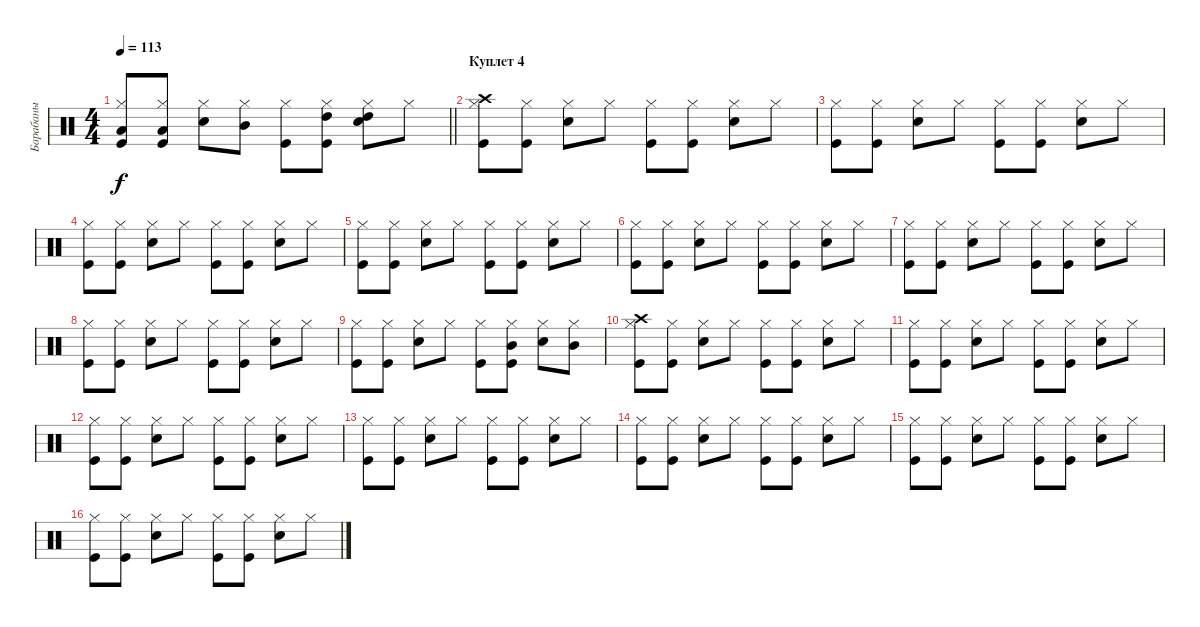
\track ("Барабаны" "Барабаны") {instrument percussion}
\staff {score}
\articulation defaults
\ts (4 4)
\tempo 113
\clef neutral
\barLineRight lightlight
\ks c
("Kick (hit)" "Hi-Hat (closed)" "Low Tom (hit)").8{dy f} ("Kick (hit)" "Hi-Hat (closed)" "Low Tom (hit)").8 ("Snare (hit) 2" "Hi-Hat (closed)").8 ("Hi-Hat (closed)" "Mid Tom (hit)").8 ("Kick (hit)" "Hi-Hat (closed)").8 ("Kick (hit)" "Hi-Hat (closed)" "High Tom (hit)").8 ("Snare (hit) 2" "Hi-Hat (closed)" "High Tom (hit)").8 "Hi-Hat (closed)".8 |
\section ("" "Куплет 4")
("Kick (hit)" "Hi-Hat (closed)" "Crash high (hit)").8 ("Kick (hit)" "Hi-Hat (closed)").8 ("Snare (hit) 2" "Hi-Hat (closed)").8 "Hi-Hat (closed)".8 ("Kick (hit)" "Hi-Hat (closed)").8 ("Kick (hit)" "Hi-Hat (closed)").8 ("Snare (hit) 2" "Hi-Hat (closed)").8 "Hi-Hat (closed)".8 |
("Kick (hit)" "Hi-Hat (closed)").8 ("Kick (hit)" "Hi-Hat (closed)").8 ("Snare (hit) 2" "Hi-Hat (closed)").8 "Hi-Hat (closed)".8 ("Kick (hit)" "Hi-Hat (closed)").8 ("Kick (hit)" "Hi-Hat (closed)").8 ("Snare (hit) 2" "Hi-Hat (closed)").8 "Hi-Hat (closed)".8 |
("Kick (hit)" "Hi-Hat (closed)").8 ("Kick (hit)" "Hi-Hat (closed)").8 ("Snare (hit) 2" "Hi-Hat (closed)").8 "Hi-Hat (closed)".8 ("Kick (hit)" "Hi-Hat (closed)").8 ("Kick (hit)" "Hi-Hat (closed)").8 ("Snare (hit) 2" "Hi-Hat (closed)").8 "Hi-Hat (closed)".8 |
("Kick (hit)" "Hi-Hat (closed)").8 ("Kick (hit)" "Hi-Hat (closed)").8 ("Snare (hit) 2" "Hi-Hat (closed)").8 "Hi-Hat (closed)".8 ("Kick (hit)" "Hi-Hat (closed)").8 ("Kick (hit)" "Hi-Hat (closed)").8 ("Snare (hit) 2" "Hi-Hat (closed)").8 "Hi-Hat (closed)".8 |
("Kick (hit)" "Hi-Hat (closed)").8 ("Kick (hit)" "Hi-Hat (closed)").8 ("Snare (hit) 2" "Hi-Hat (closed)").8 "Hi-Hat (closed)".8 ("Kick (hit)" "Hi-Hat (closed)").8 ("Kick (hit)" "Hi-Hat (closed)").8 ("Snare (hit) 2" "Hi-Hat (closed)").8 "Hi-Hat (closed)".8 |
("Kick (hit)" "Hi-Hat (closed)").8 ("Kick (hit)" "Hi-Hat (closed)").8 ("Snare (hit) 2" "Hi-Hat (closed)").8 "Hi-Hat (closed)".8 ("Kick (hit)" "Hi-Hat (closed)").8 ("Kick (hit)" "Hi-Hat (closed)").8 ("Snare (hit) 2" "Hi-Hat (closed)").8 "Hi-Hat (closed)".8 |
("Kick (hit)" "Hi-Hat (closed)").8 ("Kick (hit)" "Hi-Hat (closed)").8 ("Snare (hit) 2" "Hi-Hat (closed)").8 "Hi-Hat (closed)".8 ("Kick (hit)" "Hi-Hat (closed)").8 ("Kick (hit)" "Hi-Hat (closed)").8 ("Snare (hit) 2" "Hi-Hat (closed)").8 "Hi-Hat (closed)".8 |
("Kick (hit)" "Hi-Hat (closed)").8 ("Kick (hit)" "Hi-Hat (closed)").8 ("Snare (hit) 2" "Hi-Hat (closed)").8 "Hi-Hat (closed)".8 ("Kick (hit)" "Hi-Hat (closed)").8 ("Kick (hit)" "Hi-Hat (closed)" "Mid Tom (hit)").8 ("Snare (hit) 2" "Hi-Hat (closed)").8 ("Hi-Hat (closed)" "Mid Tom (hit)").8 |
("Kick (hit)" "Hi-Hat (closed)" "Crash high (hit)").8 ("Kick (hit)" "Hi-Hat (closed)").8 ("Snare (hit) 2" "Hi-Hat (closed)").8 "Hi-Hat (closed)".8 ("Kick (hit)" "Hi-Hat (closed)").8 ("Kick (hit)" "Hi-Hat (closed)").8 ("Snare (hit) 2" "Hi-Hat (closed)").8 "Hi-Hat (closed)".8 |
("Kick (hit)" "Hi-Hat (closed)").8 ("Kick (hit)" "Hi-Hat (closed)").8 ("Snare (hit) 2" "Hi-Hat (closed)").8 "Hi-Hat (closed)".8 ("Kick (hit)" "Hi-Hat (closed)").8 ("Kick (hit)" "Hi-Hat (closed)").8 ("Snare (hit) 2" "Hi-Hat (closed)").8 "Hi-Hat (closed)".8 |
("Kick (hit)" "Hi-Hat (closed)").8 ("Kick (hit)" "Hi-Hat (closed)").8 ("Snare (hit) 2" "Hi-Hat (closed)").8 "Hi-Hat (closed)".8 ("Kick (hit)" "Hi-Hat (closed)").8 ("Kick (hit)" "Hi-Hat (closed)").8 ("Snare (hit) 2" "Hi-Hat (closed)").8 "Hi-Hat (closed)".8 |
("Kick (hit)" "Hi-Hat (closed)").8 ("Kick (hit)" "Hi-Hat (closed)").8 ("Snare (hit) 2" "Hi-Hat (closed)").8 "Hi-Hat (closed)".8 ("Kick (hit)" "Hi-Hat (closed)").8 ("Kick (hit)" "Hi-Hat (closed)").8 ("Snare (hit) 2" "Hi-Hat (closed)").8 "Hi-Hat (closed)".8 |
("Kick (hit)" "Hi-Hat (closed)").8 ("Kick (hit)" "Hi-Hat (closed)").8 ("Snare (hit) 2" "Hi-Hat (closed)").8 "Hi-Hat (closed)".8 ("Kick (hit)" "Hi-Hat (closed)").8 ("Kick (hit)" "Hi-Hat (closed)").8 ("Snare (hit) 2" "Hi-Hat (closed)").8 "Hi-Hat (closed)".8 |
("Kick (hit)" "Hi-Hat (closed)").8 ("Kick (hit)" "Hi-Hat (closed)").8 ("Snare (hit) 2" "Hi-Hat (closed)").8 "Hi-Hat (closed)".8 ("Kick (hit)" "Hi-Hat (closed)").8 ("Kick (hit)" "Hi-Hat (closed)").8 ("Snare (hit) 2" "Hi-Hat (closed)").8 "Hi-Hat (closed)".8 |
("Kick (hit)" "Hi-Hat (closed)").8 ("Kick (hit)" "Hi-Hat (closed)").8 ("Snare (hit) 2" "Hi-Hat (closed)").8 "Hi-Hat (closed)".8 ("Kick (hit)" "Hi-Hat (closed)").8 ("Kick (hit)" "Hi-Hat (closed)").8 ("Snare (hit) 2" "Hi-Hat (closed)").8 "Hi-Hat (closed)".8
